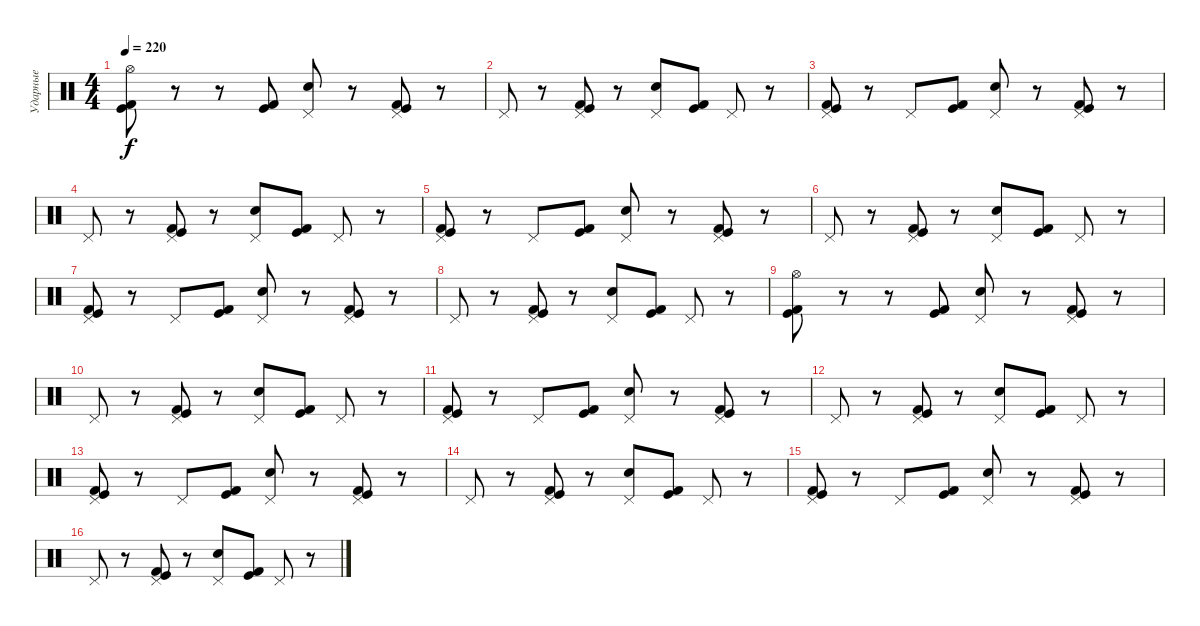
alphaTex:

\track ("Ударные" "Ударные") {instrument percussion}
\staff {score}
\articulation defaults
\ts (4 4)
\tempo 220
\clef neutral
\ks c
("Hi-Hat (open)" "Kick (hit)" "Kick (hit) 2").8{dy f} r.8 r.8 ("Kick (hit)" "Kick (hit) 2").8 ("Pedal Hi-Hat (hit)" "Electric Snare (hit)").8 r.8 ("Pedal Hi-Hat (hit)" "Kick (hit)" "Kick (hit) 2").8 r.8 |
"Pedal Hi-Hat (hit)".8 r.8 ("Pedal Hi-Hat (hit)" "Kick (hit)" "Kick (hit) 2").8 r.8 ("Pedal Hi-Hat (hit)" "Electric Snare (hit)").8 ("Kick (hit)" "Kick (hit) 2").8 "Pedal Hi-Hat (hit)".8 r.8 |
("Pedal Hi-Hat (hit)" "Kick (hit)" "Kick (hit) 2").8 r.8 "Pedal Hi-Hat (hit)".8 ("Kick (hit)" "Kick (hit) 2").8 ("Pedal Hi-Hat (hit)" "Electric Snare (hit)").8 r.8 ("Pedal Hi-Hat (hit)" "Kick (hit)" "Kick (hit) 2").8 r.8 |
"Pedal Hi-Hat (hit)".8 r.8 ("Pedal Hi-Hat (hit)" "Kick (hit)" "Kick (hit) 2").8 r.8 ("Pedal Hi-Hat (hit)" "Electric Snare (hit)").8 ("Kick (hit)" "Kick (hit) 2").8 "Pedal Hi-Hat (hit)".8 r.8 |
("Pedal Hi-Hat (hit)" "Kick (hit)" "Kick (hit) 2").8 r.8 "Pedal Hi-Hat (hit)".8 ("Kick (hit)" "Kick (hit) 2").8 ("Pedal Hi-Hat (hit)" "Electric Snare (hit)").8 r.8 ("Pedal Hi-Hat (hit)" "Kick (hit)" "Kick (hit) 2").8 r.8 |
"Pedal Hi-Hat (hit)".8 r.8 ("Pedal Hi-Hat (hit)" "Kick (hit)" "Kick (hit) 2").8 r.8 ("Pedal Hi-Hat (hit)" "Electric Snare (hit)").8 ("Kick (hit)" "Kick (hit) 2").8 "Pedal Hi-Hat (hit)".8 r.8 |
("Pedal Hi-Hat (hit)" "Kick (hit)" "Kick (hit) 2").8 r.8 "Pedal Hi-Hat (hit)".8 ("Kick (hit)" "Kick (hit) 2").8 ("Pedal Hi-Hat (hit)" "Electric Snare (hit)").8 r.8 ("Pedal Hi-Hat (hit)" "Kick (hit)" "Kick (hit) 2").8 r.8 |
"Pedal Hi-Hat (hit)".8 r.8 ("Pedal Hi-Hat (hit)" "Kick (hit)" "Kick (hit) 2").8 r.8 ("Pedal Hi-Hat (hit)" "Electric Snare (hit)").8 ("Kick (hit)" "Kick (hit) 2").8 "Pedal Hi-Hat (hit)".8 r.8 |
("Hi-Hat (open)" "Kick (hit)" "Kick (hit) 2").8 r.8 r.8 ("Kick (hit)" "Kick (hit) 2").8 ("Pedal Hi-Hat (hit)" "Electric Snare (hit)").8 r.8 ("Pedal Hi-Hat (hit)" "Kick (hit)" "Kick (hit) 2").8 r.8 |
"Pedal Hi-Hat (hit)".8 r.8 ("Pedal Hi-Hat (hit)" "Kick (hit)" "Kick (hit) 2").8 r.8 ("Pedal Hi-Hat (hit)" "Electric Snare (hit)").8 ("Kick (hit)" "Kick (hit) 2").8 "Pedal Hi-Hat (hit)".8 r.8 |
("Pedal Hi-Hat (hit)" "Kick (hit)" "Kick (hit) 2").8 r.8 "Pedal Hi-Hat (hit)".8 ("Kick (hit)" "Kick (hit) 2").8 ("Pedal Hi-Hat (hit)" "Electric Snare (hit)").8 r.8 ("Pedal Hi-Hat (hit)" "Kick (hit)" "Kick (hit) 2").8 r.8 |
"Pedal Hi-Hat (hit)".8 r.8 ("Pedal Hi-Hat (hit)" "Kick (hit)" "Kick (hit) 2").8 r.8 ("Pedal Hi-Hat (hit)" "Electric Snare (hit)").8 ("Kick (hit)" "Kick (hit) 2").8 "Pedal Hi-Hat (hit)".8 r.8 |
("Pedal Hi-Hat (hit)" "Kick (hit)" "Kick (hit) 2").8 r.8 "Pedal Hi-Hat (hit)".8 ("Kick (hit)" "Kick (hit) 2").8 ("Pedal Hi-Hat (hit)" "Electric Snare (hit)").8 r.8 ("Pedal Hi-Hat (hit)" "Kick (hit)" "Kick (hit) 2").8 r.8 |
"Pedal Hi-Hat (hit)".8 r.8 ("Pedal Hi-Hat (hit)" "Kick (hit)" "Kick (hit) 2").8 r.8 ("Pedal Hi-Hat (hit)" "Electric Snare (hit)").8 ("Kick (hit)" "Kick (hit) 2").8 "Pedal Hi-Hat (hit)".8 r.8 |
("Pedal Hi-Hat (hit)" "Kick (hit)" "Kick (hit) 2").8 r.8 "Pedal Hi-Hat (hit)".8 ("Kick (hit)" "Kick (hit) 2").8 ("Pedal Hi-Hat (hit)" "Electric Snare (hit)").8 r.8 ("Pedal Hi-Hat (hit)" "Kick (hit)" "Kick (hit) 2").8 r.8 |
"Pedal Hi-Hat (hit)".8 r.8 ("Pedal Hi-Hat (hit)" "Kick (hit)" "Kick (hit) 2").8 r.8 ("Pedal Hi-Hat (hit)" "Electric Snare (hit)").8 ("Kick (hit)" "Kick (hit) 2").8 "Pedal Hi-Hat (hit)".8 r.8
